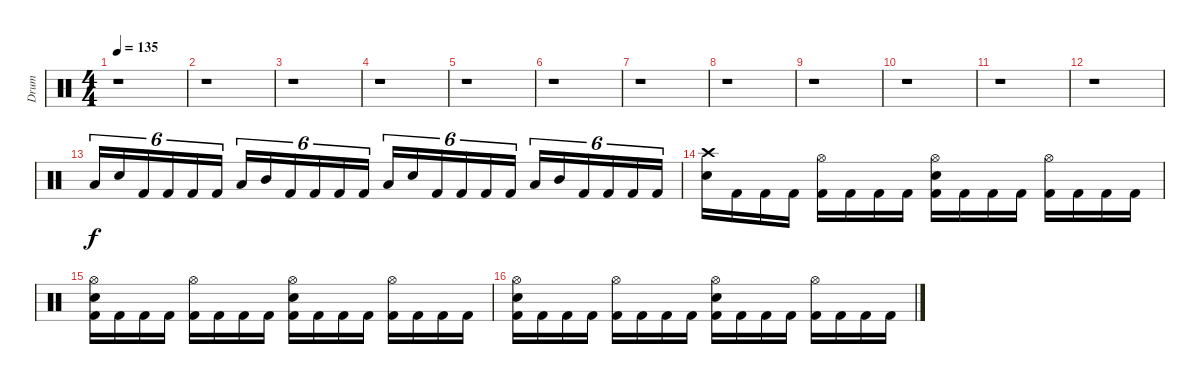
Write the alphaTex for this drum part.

\track ("Drum" "Drum") {instrument percussion}
\staff {score}
\articulation defaults
\ts (4 4)
\tempo 135
\clef neutral
\ks c
r.1{dy f} |
r.1 |
r.1 |
r.1 |
r.1 |
r.1 |
r.1 |
r.1 |
r.1 |
r.1 |
r.1 |
r.1 |
"Low Tom (hit)".16{tu (6 4)} "Snare (hit) 2".16{tu (6 4)} "Kick (hit) 2".16{tu (6 4)} "Kick (hit) 2".16{tu (6 4)} "Kick (hit) 2".16{tu (6 4)} "Kick (hit) 2".16{tu (6 4)} "Low Tom (hit)".16{tu (6 4)} "Mid Tom (hit)".16{tu (6 4)} "Kick (hit) 2".16{tu (6 4)} "Kick (hit) 2".16{tu (6 4)} "Kick (hit) 2".16{tu (6 4)} "Kick (hit) 2".16{tu (6 4)} "Low Tom (hit)".16{tu (6 4)} "Snare (hit) 2".16{tu (6 4)} "Kick (hit) 2".16{tu (6 4)} "Kick (hit) 2".16{tu (6 4)} "Kick (hit) 2".16{tu (6 4)} "Kick (hit) 2".16{tu (6 4)} "Low Tom (hit)".16{tu (6 4)} "Mid Tom (hit)".16{tu (6 4)} "Kick (hit) 2".16{tu (6 4)} "Kick (hit) 2".16{tu (6 4)} "Kick (hit) 2".16{tu (6 4)} "Kick (hit) 2".16{tu (6 4)} |
("Crash high (hit)" "Snare (hit) 2").16 "Kick (hit) 2".16 "Kick (hit) 2".16 "Kick (hit) 2".16 ("Hi-Hat (open)" "Kick (hit) 2").16 "Kick (hit) 2".16 "Kick (hit) 2".16 "Kick (hit) 2".16 ("Hi-Hat (open)" "Snare (hit) 2" "Kick (hit) 2").16 "Kick (hit) 2".16 "Kick (hit) 2".16 "Kick (hit) 2".16 ("Hi-Hat (open)" "Kick (hit) 2").16 "Kick (hit) 2".16 "Kick (hit) 2".16 "Kick (hit) 2".16 |
("Hi-Hat (open)" "Snare (hit) 2" "Kick (hit) 2").16 "Kick (hit) 2".16 "Kick (hit) 2".16 "Kick (hit) 2".16 ("Hi-Hat (open)" "Kick (hit) 2").16 "Kick (hit) 2".16 "Kick (hit) 2".16 "Kick (hit) 2".16 ("Hi-Hat (open)" "Snare (hit) 2" "Kick (hit) 2").16 "Kick (hit) 2".16 "Kick (hit) 2".16 "Kick (hit) 2".16 ("Hi-Hat (open)" "Kick (hit) 2").16 "Kick (hit) 2".16 "Kick (hit) 2".16 "Kick (hit) 2".16 |
("Hi-Hat (open)" "Snare (hit) 2" "Kick (hit) 2").16 "Kick (hit) 2".16 "Kick (hit) 2".16 "Kick (hit) 2".16 ("Hi-Hat (open)" "Kick (hit) 2").16 "Kick (hit) 2".16 "Kick (hit) 2".16 "Kick (hit) 2".16 ("Hi-Hat (open)" "Snare (hit) 2" "Kick (hit) 2").16 "Kick (hit) 2".16 "Kick (hit) 2".16 "Kick (hit) 2".16 ("Hi-Hat (open)" "Kick (hit) 2").16 "Kick (hit) 2".16 "Kick (hit) 2".16 "Kick (hit) 2".16
